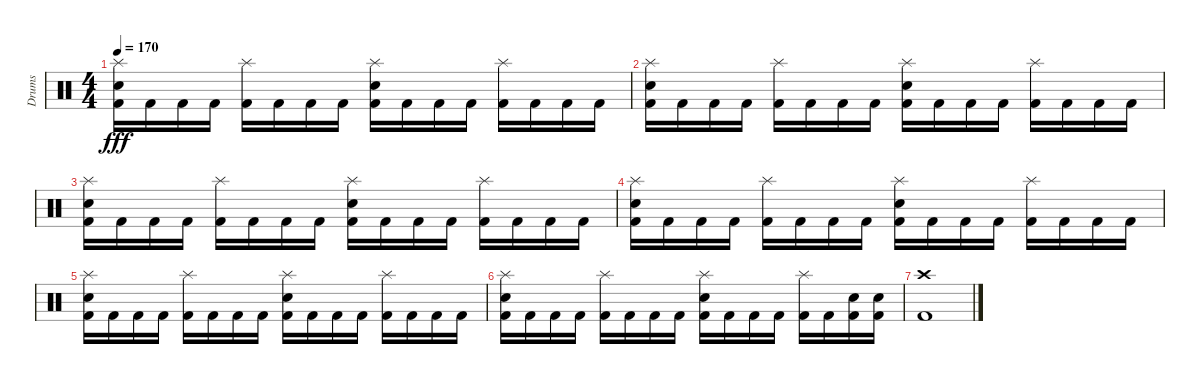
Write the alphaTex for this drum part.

\track ("Drums" "Drums") {instrument percussion}
\staff {score}
\articulation defaults
\ts (4 4)
\tempo 170
\clef neutral
\ks c
("Splash (hit)" "Snare (hit) 2" "Kick (hit) 2").16{dy fff} "Kick (hit) 2".16 "Kick (hit) 2".16 "Kick (hit) 2".16 ("Splash (hit)" "Kick (hit) 2").16 "Kick (hit) 2".16 "Kick (hit) 2".16 "Kick (hit) 2".16 ("Splash (hit)" "Snare (hit) 2" "Kick (hit) 2").16 "Kick (hit) 2".16 "Kick (hit) 2".16 "Kick (hit) 2".16 ("Splash (hit)" "Kick (hit) 2").16 "Kick (hit) 2".16 "Kick (hit) 2".16 "Kick (hit) 2".16 |
("Splash (hit)" "Snare (hit) 2" "Kick (hit) 2").16 "Kick (hit) 2".16 "Kick (hit) 2".16 "Kick (hit) 2".16 ("Splash (hit)" "Kick (hit) 2").16 "Kick (hit) 2".16 "Kick (hit) 2".16 "Kick (hit) 2".16 ("Splash (hit)" "Snare (hit) 2" "Kick (hit) 2").16 "Kick (hit) 2".16 "Kick (hit) 2".16 "Kick (hit) 2".16 ("Splash (hit)" "Kick (hit) 2").16 "Kick (hit) 2".16 "Kick (hit) 2".16 "Kick (hit) 2".16 |
("Splash (hit)" "Snare (hit) 2" "Kick (hit) 2").16 "Kick (hit) 2".16 "Kick (hit) 2".16 "Kick (hit) 2".16 ("Splash (hit)" "Kick (hit) 2").16 "Kick (hit) 2".16 "Kick (hit) 2".16 "Kick (hit) 2".16 ("Splash (hit)" "Snare (hit) 2" "Kick (hit) 2").16 "Kick (hit) 2".16 "Kick (hit) 2".16 "Kick (hit) 2".16 ("Splash (hit)" "Kick (hit) 2").16 "Kick (hit) 2".16 "Kick (hit) 2".16 "Kick (hit) 2".16 |
("Splash (hit)" "Snare (hit) 2" "Kick (hit) 2").16 "Kick (hit) 2".16 "Kick (hit) 2".16 "Kick (hit) 2".16 ("Splash (hit)" "Kick (hit) 2").16 "Kick (hit) 2".16 "Kick (hit) 2".16 "Kick (hit) 2".16 ("Splash (hit)" "Snare (hit) 2" "Kick (hit) 2").16 "Kick (hit) 2".16 "Kick (hit) 2".16 "Kick (hit) 2".16 ("Splash (hit)" "Kick (hit) 2").16 "Kick (hit) 2".16 "Kick (hit) 2".16 "Kick (hit) 2".16 |
("Splash (hit)" "Snare (hit) 2" "Kick (hit) 2").16 "Kick (hit) 2".16 "Kick (hit) 2".16 "Kick (hit) 2".16 ("Splash (hit)" "Kick (hit) 2").16 "Kick (hit) 2".16 "Kick (hit) 2".16 "Kick (hit) 2".16 ("Splash (hit)" "Snare (hit) 2" "Kick (hit) 2").16 "Kick (hit) 2".16 "Kick (hit) 2".16 "Kick (hit) 2".16 ("Splash (hit)" "Kick (hit) 2").16 "Kick (hit) 2".16 "Kick (hit) 2".16 "Kick (hit) 2".16 |
("Splash (hit)" "Snare (hit) 2" "Kick (hit) 2").16 "Kick (hit) 2".16 "Kick (hit) 2".16 "Kick (hit) 2".16 ("Splash (hit)" "Kick (hit) 2").16 "Kick (hit) 2".16 "Kick (hit) 2".16 "Kick (hit) 2".16 ("Splash (hit)" "Snare (hit) 2" "Kick (hit) 2").16 "Kick (hit) 2".16 "Kick (hit) 2".16 "Kick (hit) 2".16 ("Splash (hit)" "Kick (hit) 2").16 "Kick (hit) 2".16 ("Snare (hit) 2" "Kick (hit) 2").16 ("Snare (hit) 2" "Kick (hit) 2").16 |
("Crash high (hit)" "Kick (hit) 2").1
